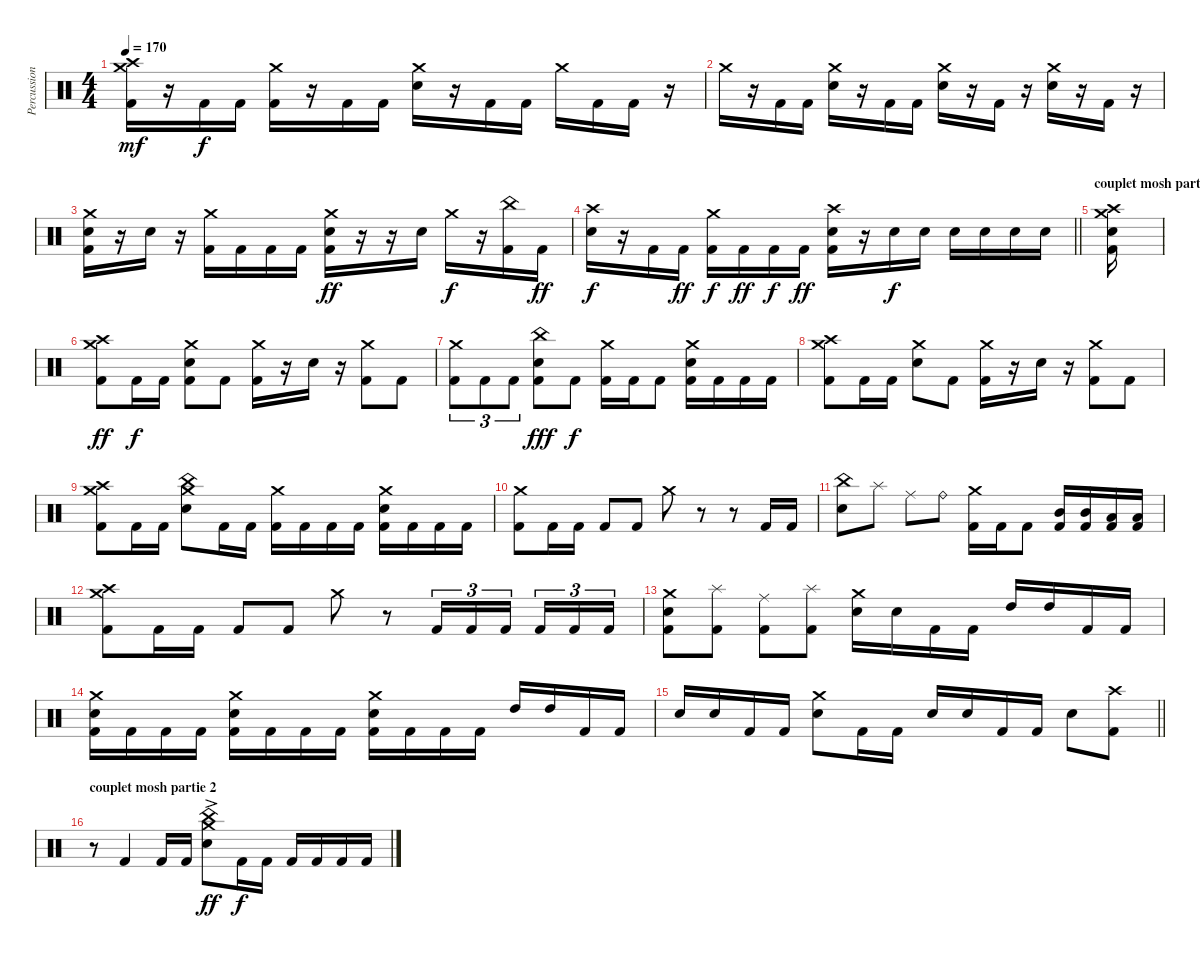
\track ("Percussions" "Percussion") {instrument percussion}
\staff {score}
\articulation defaults
\ts (4 4)
\tempo 170
\clef neutral
\ks c
("Crash medium (hit)" "Crash high (hit)" "Kick (hit) 2").16{dy mf} r.16 "Kick (hit) 2".16{dy f} "Kick (hit) 2".16 ("Crash medium (hit)" "Kick (hit) 2").16 r.16 "Kick (hit) 2".16 "Kick (hit) 2".16 ("Crash medium (hit)" "Electric Snare (hit)").16 r.16 "Kick (hit) 2".16 "Kick (hit) 2".16 "Crash medium (hit)".16 "Kick (hit) 2".16 "Kick (hit) 2".16 r.16 |
"Crash medium (hit)".16 r.16 "Kick (hit) 2".16 "Kick (hit) 2".16 ("Crash medium (hit)" "Electric Snare (hit)").16 r.16 "Kick (hit) 2".16 "Kick (hit) 2".16 ("Crash medium (hit)" "Electric Snare (hit)").16 r.16 "Kick (hit) 2".16 r.16 ("Crash medium (hit)" "Electric Snare (hit)").16 r.16 "Kick (hit) 2".16 r.16 |
("Crash medium (hit)" "Electric Snare (hit)" "Kick (hit) 2").16 r.16 "Electric Snare (hit)".16 r.16 ("Crash medium (hit)" "Kick (hit) 2").16 "Kick (hit) 2".16 "Kick (hit) 2".16 "Kick (hit) 2".16 ("Crash medium (hit)" "Electric Snare (hit)" "Kick (hit) 2").16{dy ff} r.16 r.16 "Electric Snare (hit)".16 "Crash medium (hit)".16{dy f} r.16 ("China (hit)" "Kick (hit) 2").16 "Kick (hit) 2".16{dy ff} |
\barLineRight lightlight
("Crash high (hit)" "Electric Snare (hit)").16{dy f} r.16 "Kick (hit) 2".16 "Kick (hit) 2".16{dy ff} ("Crash medium (hit)" "Kick (hit) 2").16{dy f} "Kick (hit) 2".16{dy ff} "Kick (hit) 2".16{dy f} "Kick (hit) 2".16{dy ff} ("Crash high (hit)" "Electric Snare (hit)" "Kick (hit) 2").16 r.16 "Electric Snare (hit)".16{dy f} "Electric Snare (hit)".16 "Electric Snare (hit)".16 "Electric Snare (hit)".16 "Electric Snare (hit)".16 "Electric Snare (hit)".16 |
\section ("" "couplet mosh partie 1")
("Crash medium (hit)" "Crash high (hit)" "Electric Snare (hit)" "Kick (hit) 2").16 |
("Crash medium (hit)" "Crash high (hit)" "Kick (hit) 2").8{dy ff} "Kick (hit) 2".16{dy f} "Kick (hit) 2".16 ("Crash medium (hit)" "Electric Snare (hit)" "Kick (hit) 2").8 "Kick (hit) 2".8 ("Crash medium (hit)" "Kick (hit) 2").16 r.16 "Electric Snare (hit)".16 r.16 ("Crash medium (hit)" "Kick (hit) 2").8 "Kick (hit) 2".8 |
("Crash medium (hit)" "Kick (hit) 2").8{tu (3 2)} "Kick (hit) 2".8{tu (3 2)} "Kick (hit) 2".8{tu (3 2)} ("China (hit)" "Electric Snare (hit)" "Kick (hit) 2").8{dy fff} "Kick (hit) 2".8{dy f} ("Crash medium (hit)" "Kick (hit) 2").16 "Kick (hit) 2".16 "Kick (hit) 2".8 ("Crash medium (hit)" "Electric Snare (hit)" "Kick (hit) 2").16 "Kick (hit) 2".16 "Kick (hit) 2".16 "Kick (hit) 2".16 |
("Crash medium (hit)" "Crash high (hit)" "Kick (hit) 2").8 "Kick (hit) 2".16 "Kick (hit) 2".16 ("Crash medium (hit)" "Electric Snare (hit)").8 "Kick (hit) 2".8 ("Crash medium (hit)" "Kick (hit) 2").16 r.16 "Electric Snare (hit)".16 r.16 ("Crash medium (hit)" "Kick (hit) 2").8 "Kick (hit) 2".8 |
("Crash medium (hit)" "Crash high (hit)" "Kick (hit) 2").8 "Kick (hit) 2".16 "Kick (hit) 2".16 ("Crash medium (hit)" "Electric Snare (hit)" "China (hit)").8 "Kick (hit) 2".16 "Kick (hit) 2".16 ("Crash medium (hit)" "Kick (hit) 2").16 "Kick (hit) 2".16 "Kick (hit) 2".16 "Kick (hit) 2".16 ("Crash medium (hit)" "Electric Snare (hit)" "Kick (hit) 2").16 "Kick (hit) 2".16 "Kick (hit) 2".16 "Kick (hit) 2".16 |
("Crash medium (hit)" "Kick (hit) 2").8 "Kick (hit) 2".16 "Kick (hit) 2".16 "Kick (hit) 2".8 "Kick (hit) 2".8 "Crash medium (hit)".8 r.8 r.8 "Kick (hit) 2".16 "Kick (hit) 2".16 |
("China (hit)" "Electric Snare (hit)").8 "Splash (hit)".8 "Ride (middle)".8 "Ride (bell)".8 ("Crash medium (hit)" "Kick (hit) 2").16 "Kick (hit) 2".16 "Kick (hit) 2".8 ("Mid Tom (hit)" "Kick (hit) 2").16 ("Mid Tom (hit)" "Kick (hit) 2").16 ("Low Tom (hit)" "Kick (hit) 2").16 ("Low Tom (hit)" "Kick (hit) 2").16 |
("Crash medium (hit)" "Crash high (hit)" "Kick (hit) 2").8 "Kick (hit) 2".16 "Kick (hit) 2".16 "Kick (hit) 2".8 "Kick (hit) 2".8 "Crash medium (hit)".8 r.8 "Kick (hit) 2".16{tu (3 2)} "Kick (hit) 2".16{tu (3 2)} "Kick (hit) 2".16{tu (3 2) beam splitsecondary} "Kick (hit) 2".16{tu (3 2)} "Kick (hit) 2".16{tu (3 2)} "Kick (hit) 2".16{tu (3 2)} |
("Crash medium (hit)" "Electric Snare (hit)" "Kick (hit) 2").8 ("Splash (hit)" "Kick (hit) 2").8 ("Ride (middle)" "Kick (hit) 2").8 ("Splash (hit)" "Kick (hit) 2").8 ("Crash medium (hit)" "Electric Snare (hit)").16 "Electric Snare (hit)".16 "Kick (hit) 2".16 "Kick (hit) 2".16 "High Tom (hit)".16 "High Tom (hit)".16 "Kick (hit) 2".16 "Kick (hit) 2".16 |
("Crash medium (hit)" "Electric Snare (hit)" "Kick (hit) 2").16 "Kick (hit) 2".16 "Kick (hit) 2".16 "Kick (hit) 2".16 ("Crash medium (hit)" "Electric Snare (hit)" "Kick (hit) 2").16 "Kick (hit) 2".16 "Kick (hit) 2".16 "Kick (hit) 2".16 ("Crash medium (hit)" "Electric Snare (hit)" "Kick (hit) 2").16 "Kick (hit) 2".16 "Kick (hit) 2".16 "Kick (hit) 2".16 "High Tom (hit)".16 "High Tom (hit)".16 "Kick (hit) 2".16 "Kick (hit) 2".16 |
\barLineRight lightlight "Electric Snare (hit)".16 "Electric Snare (hit)".16 "Kick (hit) 2".16 "Kick (hit) 2".16
("Crash medium (hit)" "Electric Snare (hit)").8 "Kick (hit) 2".16 "Kick (hit) 2".16 "Electric Snare (hit)".16 "Electric Snare (hit)".16 "Kick (hit) 2".16 "Kick (hit) 2".16 "Electric Snare (hit)".8 ("Crash high (hit)" "Kick (hit) 2").8 |
\section ("" "couplet mosh partie 2")
r.8 "Kick (hit) 2".4 "Kick (hit) 2".16 "Kick (hit) 2".16 ("Crash medium (hit)"{ac} "Electric Snare (hit)" "China (hit)").8{dy ff} "Kick (hit) 2".16{dy f} "Kick (hit) 2".16 "Kick (hit) 2".16 "Kick (hit) 2".16 "Kick (hit) 2".16 "Kick (hit) 2".16
